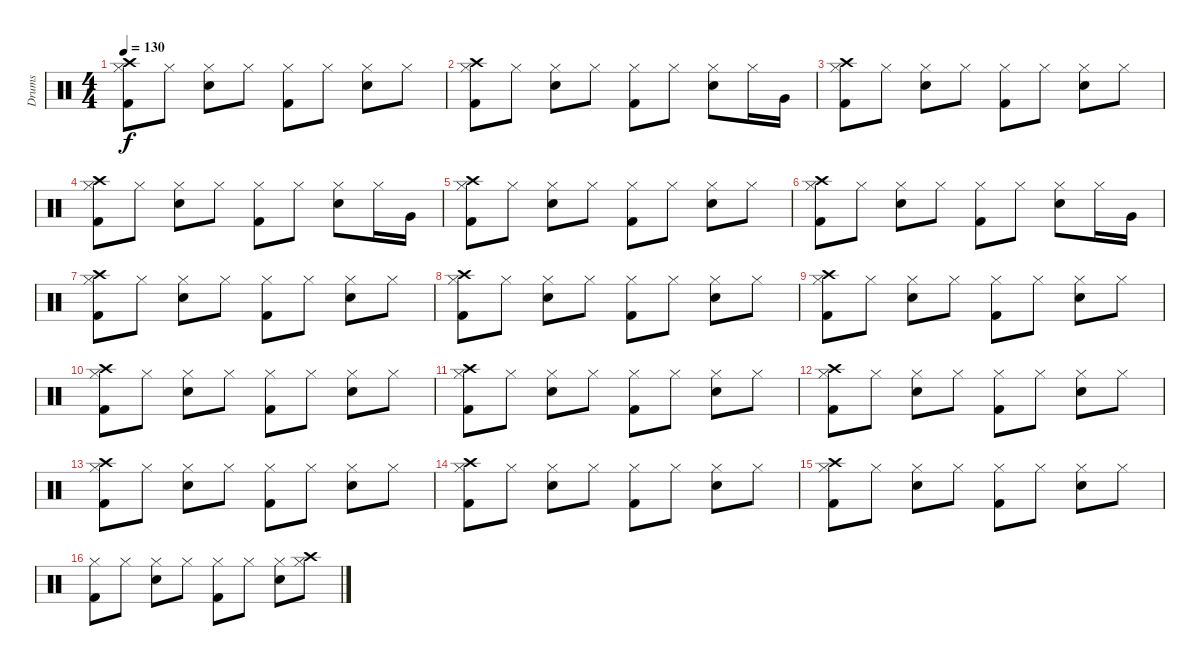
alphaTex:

\track ("Drums" "Drums") {instrument percussion}
\staff {score}
\articulation defaults
\ts (4 4)
\tempo 130
\clef neutral
\ks c
("Kick (hit) 2" "Hi-Hat (closed)" "Crash high (hit)").8{dy f} "Hi-Hat (closed)".8 ("Snare (hit) 2" "Hi-Hat (closed)").8 "Hi-Hat (closed)".8 ("Kick (hit) 2" "Hi-Hat (closed)").8 "Hi-Hat (closed)".8 ("Snare (hit) 2" "Hi-Hat (closed)").8 "Hi-Hat (closed)".8 |
("Kick (hit) 2" "Hi-Hat (closed)" "Crash high (hit)").8 "Hi-Hat (closed)".8 ("Snare (hit) 2" "Hi-Hat (closed)").8 "Hi-Hat (closed)".8 ("Kick (hit) 2" "Hi-Hat (closed)").8 "Hi-Hat (closed)".8 ("Snare (hit) 2" "Hi-Hat (closed)").8 "Hi-Hat (closed)".16 "Very Low Tom (hit)".16 |
("Kick (hit) 2" "Hi-Hat (closed)" "Crash high (hit)").8 "Hi-Hat (closed)".8 ("Snare (hit) 2" "Hi-Hat (closed)").8 "Hi-Hat (closed)".8 ("Kick (hit) 2" "Hi-Hat (closed)").8 "Hi-Hat (closed)".8 ("Snare (hit) 2" "Hi-Hat (closed)").8 "Hi-Hat (closed)".8 |
("Kick (hit) 2" "Hi-Hat (closed)" "Crash high (hit)").8 "Hi-Hat (closed)".8 ("Snare (hit) 2" "Hi-Hat (closed)").8 "Hi-Hat (closed)".8 ("Kick (hit) 2" "Hi-Hat (closed)").8 "Hi-Hat (closed)".8 ("Snare (hit) 2" "Hi-Hat (closed)").8 "Hi-Hat (closed)".16 "Very Low Tom (hit)".16 |
("Kick (hit) 2" "Hi-Hat (closed)" "Crash high (hit)").8 "Hi-Hat (closed)".8 ("Snare (hit) 2" "Hi-Hat (closed)").8 "Hi-Hat (closed)".8 ("Kick (hit) 2" "Hi-Hat (closed)").8 "Hi-Hat (closed)".8 ("Snare (hit) 2" "Hi-Hat (closed)").8 "Hi-Hat (closed)".8 |
("Kick (hit) 2" "Hi-Hat (closed)" "Crash high (hit)").8 "Hi-Hat (closed)".8 ("Snare (hit) 2" "Hi-Hat (closed)").8 "Hi-Hat (closed)".8 ("Kick (hit) 2" "Hi-Hat (closed)").8 "Hi-Hat (closed)".8 ("Snare (hit) 2" "Hi-Hat (closed)").8 "Hi-Hat (closed)".16 "Very Low Tom (hit)".16 |
("Kick (hit) 2" "Hi-Hat (closed)" "Crash high (hit)").8 "Hi-Hat (closed)".8 ("Snare (hit) 2" "Hi-Hat (closed)").8 "Hi-Hat (closed)".8 ("Kick (hit) 2" "Hi-Hat (closed)").8 "Hi-Hat (closed)".8 ("Snare (hit) 2" "Hi-Hat (closed)").8 "Hi-Hat (closed)".8 |
("Kick (hit) 2" "Hi-Hat (closed)" "Crash high (hit)").8 "Hi-Hat (closed)".8 ("Snare (hit) 2" "Hi-Hat (closed)").8 "Hi-Hat (closed)".8 ("Kick (hit) 2" "Hi-Hat (closed)").8 "Hi-Hat (closed)".8 ("Snare (hit) 2" "Hi-Hat (closed)").8 "Hi-Hat (closed)".8 |
("Kick (hit) 2" "Hi-Hat (closed)" "Crash high (hit)").8 "Hi-Hat (closed)".8 ("Snare (hit) 2" "Hi-Hat (closed)").8 "Hi-Hat (closed)".8 ("Kick (hit) 2" "Hi-Hat (closed)").8 "Hi-Hat (closed)".8 ("Snare (hit) 2" "Hi-Hat (closed)").8 "Hi-Hat (closed)".8 |
("Kick (hit) 2" "Hi-Hat (closed)" "Crash high (hit)").8 "Hi-Hat (closed)".8 ("Snare (hit) 2" "Hi-Hat (closed)").8 "Hi-Hat (closed)".8 ("Kick (hit) 2" "Hi-Hat (closed)").8 "Hi-Hat (closed)".8 ("Snare (hit) 2" "Hi-Hat (closed)").8 "Hi-Hat (closed)".8 |
("Kick (hit) 2" "Hi-Hat (closed)" "Crash high (hit)").8 "Hi-Hat (closed)".8 ("Snare (hit) 2" "Hi-Hat (closed)").8 "Hi-Hat (closed)".8 ("Kick (hit) 2" "Hi-Hat (closed)").8 "Hi-Hat (closed)".8 ("Snare (hit) 2" "Hi-Hat (closed)").8 "Hi-Hat (closed)".8 |
("Kick (hit) 2" "Hi-Hat (closed)" "Crash high (hit)").8 "Hi-Hat (closed)".8 ("Snare (hit) 2" "Hi-Hat (closed)").8 "Hi-Hat (closed)".8 ("Kick (hit) 2" "Hi-Hat (closed)").8 "Hi-Hat (closed)".8 ("Snare (hit) 2" "Hi-Hat (closed)").8 "Hi-Hat (closed)".8 |
("Kick (hit) 2" "Hi-Hat (closed)" "Crash high (hit)").8 "Hi-Hat (closed)".8 ("Snare (hit) 2" "Hi-Hat (closed)").8 "Hi-Hat (closed)".8 ("Kick (hit) 2" "Hi-Hat (closed)").8 "Hi-Hat (closed)".8 ("Snare (hit) 2" "Hi-Hat (closed)").8 "Hi-Hat (closed)".8 |
("Kick (hit) 2" "Hi-Hat (closed)" "Crash high (hit)").8 "Hi-Hat (closed)".8 ("Snare (hit) 2" "Hi-Hat (closed)").8 "Hi-Hat (closed)".8 ("Kick (hit) 2" "Hi-Hat (closed)").8 "Hi-Hat (closed)".8 ("Snare (hit) 2" "Hi-Hat (closed)").8 "Hi-Hat (closed)".8 |
("Kick (hit) 2" "Hi-Hat (closed)" "Crash high (hit)").8 "Hi-Hat (closed)".8 ("Snare (hit) 2" "Hi-Hat (closed)").8 "Hi-Hat (closed)".8 ("Kick (hit) 2" "Hi-Hat (closed)").8 "Hi-Hat (closed)".8 ("Snare (hit) 2" "Hi-Hat (closed)").8 "Hi-Hat (closed)".8 |
("Kick (hit) 2" "Hi-Hat (closed)").8 "Hi-Hat (closed)".8 ("Snare (hit) 2" "Hi-Hat (closed)").8 "Hi-Hat (closed)".8 ("Kick (hit) 2" "Hi-Hat (closed)").8 "Hi-Hat (closed)".8 ("Snare (hit) 2" "Hi-Hat (closed)").8 ("Hi-Hat (closed)" "Crash high (hit)").8
